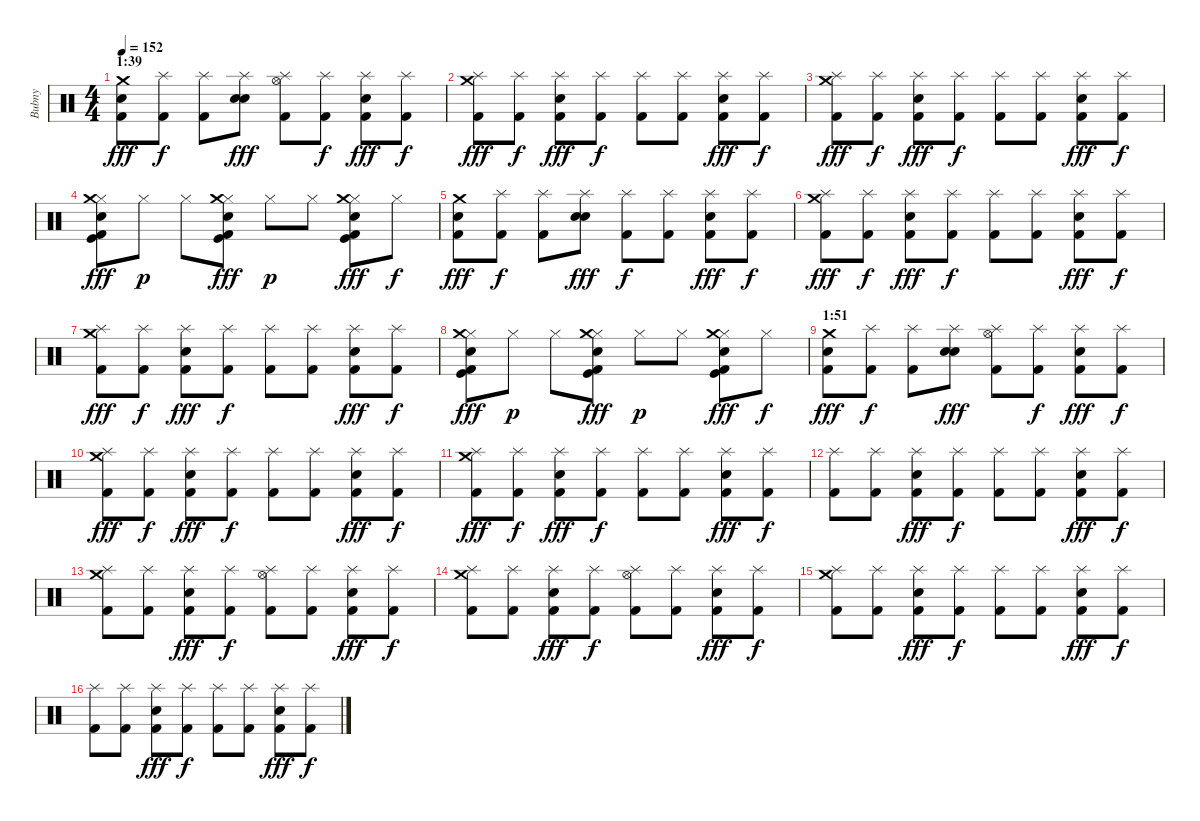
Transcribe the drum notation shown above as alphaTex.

\track ("Bubny" "Bubny") {instrument percussion}
\staff {score}
\articulation defaults
\ts (4 4)
\section ("" "1:39")
\tempo 152
\clef neutral
\ks c
("Kick (hit) 2" "Electric Snare (hit)" "Crash medium (hit)").8{dy fff} ("Splash (hit)" "Kick (hit) 2").8{dy f} ("Splash (hit)" "Kick (hit) 2").8 ("Splash (hit)" "Electric Snare (hit)" "Snare (hit) 2").8{dy fff} ("Splash (hit)" "Kick (hit) 2" "Hi-Hat (open)").8 ("Splash (hit)" "Kick (hit) 2").8{dy f} ("Splash (hit)" "Kick (hit) 2" "Snare (hit) 2").8{dy fff} ("Splash (hit)" "Kick (hit) 2").8{dy f} |
("Splash (hit)" "Kick (hit) 2" "Crash medium (hit)").8{dy fff} ("Splash (hit)" "Kick (hit) 2").8{dy f} ("Splash (hit)" "Kick (hit) 2" "Snare (hit) 2").8{dy fff} ("Splash (hit)" "Kick (hit) 2").8{dy f} ("Splash (hit)" "Kick (hit) 2").8 ("Splash (hit)" "Kick (hit) 2").8 ("Splash (hit)" "Kick (hit) 2" "Snare (hit) 2").8{dy fff} ("Splash (hit)" "Kick (hit) 2").8{dy f} |
("Splash (hit)" "Kick (hit) 2" "Crash medium (hit)").8{dy fff} ("Splash (hit)" "Kick (hit) 2").8{dy f} ("Splash (hit)" "Kick (hit) 2" "Snare (hit) 2").8{dy fff} ("Splash (hit)" "Kick (hit) 2").8{dy f} ("Splash (hit)" "Kick (hit) 2").8 ("Splash (hit)" "Kick (hit) 2").8 ("Splash (hit)" "Kick (hit) 2" "Snare (hit) 2").8{dy fff} ("Splash (hit)" "Kick (hit) 2").8{dy f} |
("Hi-Hat (closed)" "Crash medium (hit)" "Kick (hit) 2" "Kick (hit)" "Snare (hit) 2").8{dy fff} "Hi-Hat (closed)".8{dy p} "Hi-Hat (closed)".8 ("Hi-Hat (closed)" "Crash medium (hit)" "Kick (hit) 2" "Kick (hit)" "Snare (hit) 2").8{dy fff} "Hi-Hat (closed)".8{dy p} "Hi-Hat (closed)".8 ("Hi-Hat (closed)" "Crash medium (hit)" "Kick (hit) 2" "Kick (hit)" "Snare (hit) 2").8{dy fff} "Hi-Hat (closed)".8{dy f} |
("Kick (hit) 2" "Electric Snare (hit)" "Crash medium (hit)").8{dy fff} ("Splash (hit)" "Kick (hit) 2").8{dy f} ("Splash (hit)" "Kick (hit) 2").8 ("Splash (hit)" "Electric Snare (hit)" "Snare (hit) 2").8{dy fff} ("Splash (hit)" "Kick (hit) 2").8{dy f} ("Splash (hit)" "Kick (hit) 2").8 ("Splash (hit)" "Kick (hit) 2" "Snare (hit) 2").8{dy fff} ("Splash (hit)" "Kick (hit) 2").8{dy f} |
("Splash (hit)" "Kick (hit) 2" "Crash medium (hit)").8{dy fff} ("Splash (hit)" "Kick (hit) 2").8{dy f} ("Splash (hit)" "Kick (hit) 2" "Snare (hit) 2").8{dy fff} ("Splash (hit)" "Kick (hit) 2").8{dy f} ("Splash (hit)" "Kick (hit) 2").8 ("Splash (hit)" "Kick (hit) 2").8 ("Splash (hit)" "Kick (hit) 2" "Snare (hit) 2").8{dy fff} ("Splash (hit)" "Kick (hit) 2").8{dy f} |
("Splash (hit)" "Kick (hit) 2" "Crash medium (hit)").8{dy fff} ("Splash (hit)" "Kick (hit) 2").8{dy f} ("Splash (hit)" "Kick (hit) 2" "Snare (hit) 2").8{dy fff} ("Splash (hit)" "Kick (hit) 2").8{dy f} ("Splash (hit)" "Kick (hit) 2").8 ("Splash (hit)" "Kick (hit) 2").8 ("Splash (hit)" "Kick (hit) 2" "Snare (hit) 2").8{dy fff} ("Splash (hit)" "Kick (hit) 2").8{dy f} |
("Hi-Hat (closed)" "Crash medium (hit)" "Kick (hit) 2" "Kick (hit)" "Snare (hit) 2").8{dy fff} "Hi-Hat (closed)".8{dy p} "Hi-Hat (closed)".8 ("Hi-Hat (closed)" "Crash medium (hit)" "Kick (hit) 2" "Kick (hit)" "Snare (hit) 2").8{dy fff} "Hi-Hat (closed)".8{dy p} "Hi-Hat (closed)".8 ("Hi-Hat (closed)" "Crash medium (hit)" "Kick (hit) 2" "Kick (hit)" "Snare (hit) 2").8{dy fff} "Hi-Hat (closed)".8{dy f} |
\section ("" "1:51")
("Kick (hit) 2" "Electric Snare (hit)" "Crash medium (hit)").8{dy fff} ("Splash (hit)" "Kick (hit) 2").8{dy f} ("Splash (hit)" "Kick (hit) 2").8 ("Splash (hit)" "Electric Snare (hit)" "Snare (hit) 2").8{dy fff} ("Splash (hit)" "Kick (hit) 2" "Hi-Hat (open)").8 ("Splash (hit)" "Kick (hit) 2").8{dy f} ("Splash (hit)" "Kick (hit) 2" "Snare (hit) 2").8{dy fff} ("Splash (hit)" "Kick (hit) 2").8{dy f} |
("Splash (hit)" "Kick (hit) 2" "Crash medium (hit)").8{dy fff} ("Splash (hit)" "Kick (hit) 2").8{dy f} ("Splash (hit)" "Kick (hit) 2" "Snare (hit) 2").8{dy fff} ("Splash (hit)" "Kick (hit) 2").8{dy f} ("Splash (hit)" "Kick (hit) 2").8 ("Splash (hit)" "Kick (hit) 2").8 ("Splash (hit)" "Kick (hit) 2" "Snare (hit) 2").8{dy fff} ("Splash (hit)" "Kick (hit) 2").8{dy f} |
("Splash (hit)" "Kick (hit) 2" "Crash medium (hit)").8{dy fff} ("Splash (hit)" "Kick (hit) 2").8{dy f} ("Splash (hit)" "Kick (hit) 2" "Snare (hit) 2").8{dy fff} ("Splash (hit)" "Kick (hit) 2").8{dy f} ("Splash (hit)" "Kick (hit) 2").8 ("Splash (hit)" "Kick (hit) 2").8 ("Splash (hit)" "Kick (hit) 2" "Snare (hit) 2").8{dy fff} ("Splash (hit)" "Kick (hit) 2").8{dy f} |
("Splash (hit)" "Kick (hit) 2").8 ("Splash (hit)" "Kick (hit) 2").8 ("Splash (hit)" "Kick (hit) 2" "Snare (hit) 2").8{dy fff} ("Splash (hit)" "Kick (hit) 2").8{dy f} ("Splash (hit)" "Kick (hit) 2").8 ("Splash (hit)" "Kick (hit) 2").8 ("Splash (hit)" "Kick (hit) 2" "Snare (hit) 2").8{dy fff} ("Splash (hit)" "Kick (hit) 2").8{dy f} |
("Splash (hit)" "Kick (hit) 2" "Crash medium (hit)").8 ("Splash (hit)" "Kick (hit) 2").8 ("Splash (hit)" "Kick (hit) 2" "Snare (hit) 2").8{dy fff} ("Splash (hit)" "Kick (hit) 2").8{dy f} ("Splash (hit)" "Kick (hit) 2" "Hi-Hat (open)").8 ("Splash (hit)" "Kick (hit) 2").8 ("Splash (hit)" "Kick (hit) 2" "Snare (hit) 2").8{dy fff} ("Splash (hit)" "Kick (hit) 2").8{dy f} |
("Splash (hit)" "Kick (hit) 2" "Crash medium (hit)").8 ("Splash (hit)" "Kick (hit) 2").8 ("Splash (hit)" "Kick (hit) 2" "Snare (hit) 2").8{dy fff} ("Splash (hit)" "Kick (hit) 2").8{dy f} ("Splash (hit)" "Kick (hit) 2" "Hi-Hat (open)").8 ("Splash (hit)" "Kick (hit) 2").8 ("Splash (hit)" "Kick (hit) 2" "Snare (hit) 2").8{dy fff} ("Splash (hit)" "Kick (hit) 2").8{dy f} |
("Splash (hit)" "Kick (hit) 2" "Crash medium (hit)").8 ("Splash (hit)" "Kick (hit) 2").8 ("Splash (hit)" "Kick (hit) 2" "Snare (hit) 2").8{dy fff} ("Splash (hit)" "Kick (hit) 2").8{dy f} ("Splash (hit)" "Kick (hit) 2").8 ("Splash (hit)" "Kick (hit) 2").8 ("Splash (hit)" "Kick (hit) 2" "Snare (hit) 2").8{dy fff} ("Splash (hit)" "Kick (hit) 2").8{dy f} |
("Splash (hit)" "Kick (hit) 2").8 ("Splash (hit)" "Kick (hit) 2").8 ("Splash (hit)" "Kick (hit) 2" "Snare (hit) 2").8{dy fff} ("Splash (hit)" "Kick (hit) 2").8{dy f} ("Splash (hit)" "Kick (hit) 2").8 ("Splash (hit)" "Kick (hit) 2").8 ("Splash (hit)" "Kick (hit) 2" "Snare (hit) 2").8{dy fff} ("Splash (hit)" "Kick (hit) 2").8{dy f}
